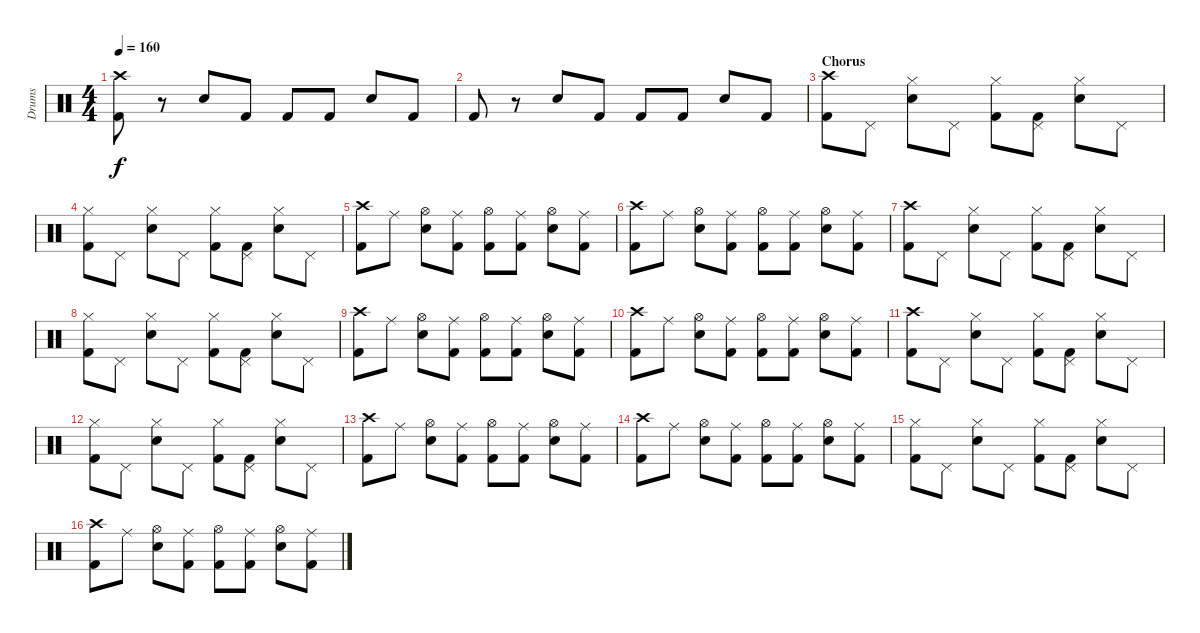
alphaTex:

\track ("Drums" "Drums") {instrument percussion}
\staff {score}
\articulation defaults
\ts (4 4)
\tempo 160
\clef neutral
\ks c
("Kick (hit) 2" "Crash high (hit)").8{dy f} r.8 "Electric Snare (hit)".8 "Kick (hit) 2".8 "Kick (hit) 2".8 "Kick (hit) 2".8 "Electric Snare (hit)".8 "Kick (hit) 2".8 |
"Kick (hit) 2".8 r.8 "Electric Snare (hit)".8 "Kick (hit) 2".8 "Kick (hit) 2".8 "Kick (hit) 2".8 "Electric Snare (hit)".8 "Kick (hit) 2".8 |
\section ("" "Chorus")
("Kick (hit) 2" "Crash high (hit)").8 "Pedal Hi-Hat (hit)".8 ("Electric Snare (hit)" "Hi-Hat (closed)").8 "Pedal Hi-Hat (hit)".8 ("Kick (hit) 2" "Hi-Hat (closed)").8 ("Kick (hit) 2" "Pedal Hi-Hat (hit)").8 ("Electric Snare (hit)" "Hi-Hat (closed)").8 "Pedal Hi-Hat (hit)".8 |
("Kick (hit) 2" "Hi-Hat (closed)").8 "Pedal Hi-Hat (hit)".8 ("Electric Snare (hit)" "Hi-Hat (closed)").8 "Pedal Hi-Hat (hit)".8 ("Kick (hit) 2" "Hi-Hat (closed)").8 ("Kick (hit) 2" "Pedal Hi-Hat (hit)").8 ("Electric Snare (hit)" "Hi-Hat (closed)").8 "Pedal Hi-Hat (hit)".8 |
("Kick (hit) 2" "Crash high (hit)").8 "Ride (middle)".8 ("Electric Snare (hit)" "Hi-Hat (open)").8 ("Kick (hit) 2" "Ride (middle)").8 ("Kick (hit) 2" "Hi-Hat (open)").8 ("Kick (hit) 2" "Ride (middle)").8 ("Electric Snare (hit)" "Hi-Hat (open)").8 ("Kick (hit) 2" "Ride (middle)").8 |
("Kick (hit) 2" "Crash high (hit)").8 "Ride (middle)".8 ("Electric Snare (hit)" "Hi-Hat (open)").8 ("Kick (hit) 2" "Ride (middle)").8 ("Kick (hit) 2" "Hi-Hat (open)").8 ("Kick (hit) 2" "Ride (middle)").8 ("Electric Snare (hit)" "Hi-Hat (open)").8 ("Kick (hit) 2" "Ride (middle)").8 |
("Kick (hit) 2" "Crash high (hit)").8 "Pedal Hi-Hat (hit)".8 ("Electric Snare (hit)" "Hi-Hat (closed)").8 "Pedal Hi-Hat (hit)".8 ("Kick (hit) 2" "Hi-Hat (closed)").8 ("Kick (hit) 2" "Pedal Hi-Hat (hit)").8 ("Electric Snare (hit)" "Hi-Hat (closed)").8 "Pedal Hi-Hat (hit)".8 |
("Kick (hit) 2" "Hi-Hat (closed)").8 "Pedal Hi-Hat (hit)".8 ("Electric Snare (hit)" "Hi-Hat (closed)").8 "Pedal Hi-Hat (hit)".8 ("Kick (hit) 2" "Hi-Hat (closed)").8 ("Kick (hit) 2" "Pedal Hi-Hat (hit)").8 ("Electric Snare (hit)" "Hi-Hat (closed)").8 "Pedal Hi-Hat (hit)".8 |
("Kick (hit) 2" "Crash high (hit)").8 "Ride (middle)".8 ("Electric Snare (hit)" "Hi-Hat (open)").8 ("Kick (hit) 2" "Ride (middle)").8 ("Kick (hit) 2" "Hi-Hat (open)").8 ("Kick (hit) 2" "Ride (middle)").8 ("Electric Snare (hit)" "Hi-Hat (open)").8 ("Kick (hit) 2" "Ride (middle)").8 |
("Kick (hit) 2" "Crash high (hit)").8 "Ride (middle)".8 ("Electric Snare (hit)" "Hi-Hat (open)").8 ("Kick (hit) 2" "Ride (middle)").8 ("Kick (hit) 2" "Hi-Hat (open)").8 ("Kick (hit) 2" "Ride (middle)").8 ("Electric Snare (hit)" "Hi-Hat (open)").8 ("Kick (hit) 2" "Ride (middle)").8 |
("Kick (hit) 2" "Crash high (hit)").8 "Pedal Hi-Hat (hit)".8 ("Electric Snare (hit)" "Hi-Hat (closed)").8 "Pedal Hi-Hat (hit)".8 ("Kick (hit) 2" "Hi-Hat (closed)").8 ("Kick (hit) 2" "Pedal Hi-Hat (hit)").8 ("Electric Snare (hit)" "Hi-Hat (closed)").8 "Pedal Hi-Hat (hit)".8 |
("Kick (hit) 2" "Hi-Hat (closed)").8 "Pedal Hi-Hat (hit)".8 ("Electric Snare (hit)" "Hi-Hat (closed)").8 "Pedal Hi-Hat (hit)".8 ("Kick (hit) 2" "Hi-Hat (closed)").8 ("Kick (hit) 2" "Pedal Hi-Hat (hit)").8 ("Electric Snare (hit)" "Hi-Hat (closed)").8 "Pedal Hi-Hat (hit)".8 |
("Kick (hit) 2" "Crash high (hit)").8 "Ride (middle)".8 ("Electric Snare (hit)" "Hi-Hat (open)").8 ("Kick (hit) 2" "Ride (middle)").8 ("Kick (hit) 2" "Hi-Hat (open)").8 ("Kick (hit) 2" "Ride (middle)").8 ("Electric Snare (hit)" "Hi-Hat (open)").8 ("Kick (hit) 2" "Ride (middle)").8 |
("Kick (hit) 2" "Crash high (hit)").8 "Ride (middle)".8 ("Electric Snare (hit)" "Hi-Hat (open)").8 ("Kick (hit) 2" "Ride (middle)").8 ("Kick (hit) 2" "Hi-Hat (open)").8 ("Kick (hit) 2" "Ride (middle)").8 ("Electric Snare (hit)" "Hi-Hat (open)").8 ("Kick (hit) 2" "Ride (middle)").8 |
("Kick (hit) 2" "Hi-Hat (closed)").8 "Pedal Hi-Hat (hit)".8 ("Electric Snare (hit)" "Hi-Hat (closed)").8 "Pedal Hi-Hat (hit)".8 ("Kick (hit) 2" "Hi-Hat (closed)").8 ("Kick (hit) 2" "Pedal Hi-Hat (hit)").8 ("Electric Snare (hit)" "Hi-Hat (closed)").8 "Pedal Hi-Hat (hit)".8 |
("Kick (hit) 2" "Crash high (hit)").8 "Ride (middle)".8 ("Electric Snare (hit)" "Hi-Hat (open)").8 ("Kick (hit) 2" "Ride (middle)").8 ("Kick (hit) 2" "Hi-Hat (open)").8 ("Kick (hit) 2" "Ride (middle)").8 ("Electric Snare (hit)" "Hi-Hat (open)").8 ("Kick (hit) 2" "Ride (middle)").8
